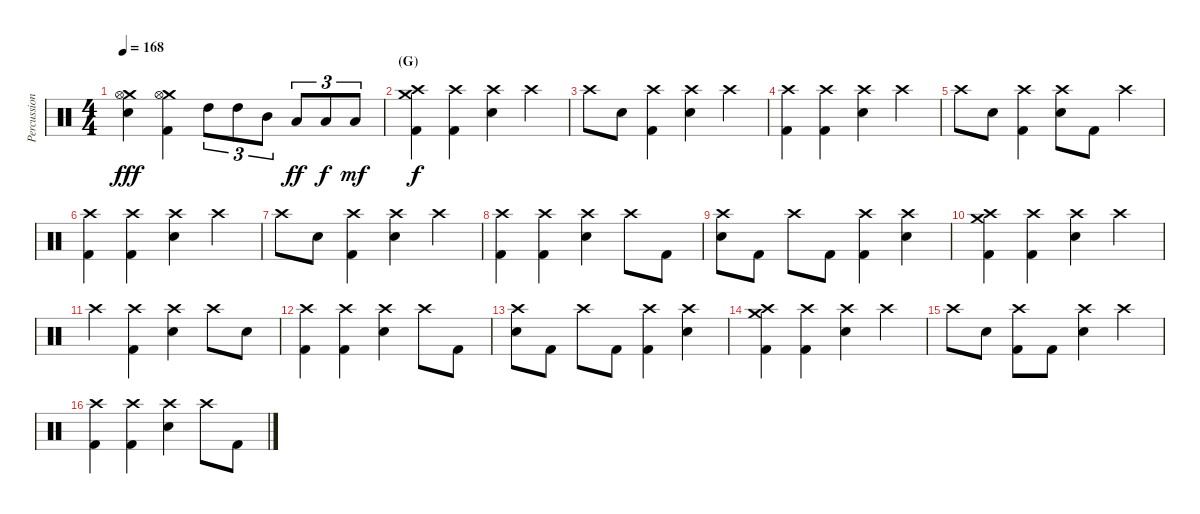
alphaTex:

\track ("Percussion" "Percussion") {instrument percussion}
\staff {score}
\articulation defaults
\ts (4 4)
\tempo 168
\clef neutral
\ks c
("Crash medium (hit)" "Hi-Hat (open)" "Snare (hit) 2").4{dy fff} ("Crash medium (hit)" "Hi-Hat (open)" "Kick (hit) 2").4 "High Tom (hit)".8{tu (3 2) volume 16} "High Tom (hit)".8{tu (3 2)} "Mid Tom (hit)".8{tu (3 2)} "Low Tom (hit)".8{tu (3 2) dy ff} "Low Tom (hit)".8{tu (3 2) dy f} "Low Tom (hit)".8{tu (3 2) dy mf} |
\section ("" "(G)")
("Crash medium (hit)" "Crash high (hit)" "Kick (hit) 2").4{dy f volume 13} ("Crash high (hit)" "Kick (hit) 2").4 ("Crash high (hit)" "Snare (hit) 2").4 "Crash high (hit)".4 |
"Crash high (hit)".8 "Snare (hit) 2".8 ("Crash high (hit)" "Kick (hit) 2").4 ("Crash high (hit)" "Snare (hit) 2").4 "Crash high (hit)".4 |
("Crash high (hit)" "Kick (hit) 2").4 ("Crash high (hit)" "Kick (hit) 2").4 ("Crash high (hit)" "Snare (hit) 2").4 "Crash high (hit)".4 |
"Crash high (hit)".8 "Snare (hit) 2".8 ("Crash high (hit)" "Kick (hit) 2").4 ("Crash high (hit)" "Snare (hit) 2").8 "Kick (hit) 2".8 "Crash high (hit)".4 |
("Crash high (hit)" "Kick (hit) 2").4 ("Crash high (hit)" "Kick (hit) 2").4 ("Crash high (hit)" "Snare (hit) 2").4 "Crash high (hit)".4 |
"Crash high (hit)".8 "Snare (hit) 2".8 ("Crash high (hit)" "Kick (hit) 2").4 ("Crash high (hit)" "Snare (hit) 2").4 "Crash high (hit)".4 |
("Crash high (hit)" "Kick (hit) 2").4 ("Crash high (hit)" "Kick (hit) 2").4 ("Crash high (hit)" "Snare (hit) 2").4 "Crash high (hit)".8 "Kick (hit) 2".8 |
("Crash high (hit)" "Snare (hit) 2").8 "Kick (hit) 2".8 "Crash high (hit)".8 "Kick (hit) 2".8 ("Crash high (hit)" "Kick (hit) 2").4 ("Crash high (hit)" "Snare (hit) 2").4 |
("Crash medium (hit)" "Crash high (hit)" "Kick (hit) 2").4 ("Crash high (hit)" "Kick (hit) 2").4 ("Crash high (hit)" "Snare (hit) 2").4 "Crash high (hit)".4 |
"Crash high (hit)".4 ("Crash high (hit)" "Kick (hit) 2").4 ("Crash high (hit)" "Snare (hit) 2").4 "Crash high (hit)".8 "Snare (hit) 2".8 |
("Crash high (hit)" "Kick (hit) 2").4 ("Crash high (hit)" "Kick (hit) 2").4 ("Crash high (hit)" "Snare (hit) 2").4 "Crash high (hit)".8 "Kick (hit) 2".8 |
("Crash high (hit)" "Snare (hit) 2").8 "Kick (hit) 2".8 "Crash high (hit)".8 "Kick (hit) 2".8 ("Crash high (hit)" "Kick (hit) 2").4 ("Crash high (hit)" "Snare (hit) 2").4 |
("Crash medium (hit)" "Crash high (hit)" "Kick (hit) 2").4 ("Crash high (hit)" "Kick (hit) 2").4 ("Crash high (hit)" "Snare (hit) 2").4 "Crash high (hit)".4 |
"Crash high (hit)".8 "Snare (hit) 2".8 ("Crash high (hit)" "Kick (hit) 2").8 "Kick (hit) 2".8 ("Crash high (hit)" "Snare (hit) 2").4 "Crash high (hit)".4 |
("Crash high (hit)" "Kick (hit) 2").4 ("Crash high (hit)" "Kick (hit) 2").4 ("Crash high (hit)" "Snare (hit) 2").4 "Crash high (hit)".8 "Kick (hit) 2".8
